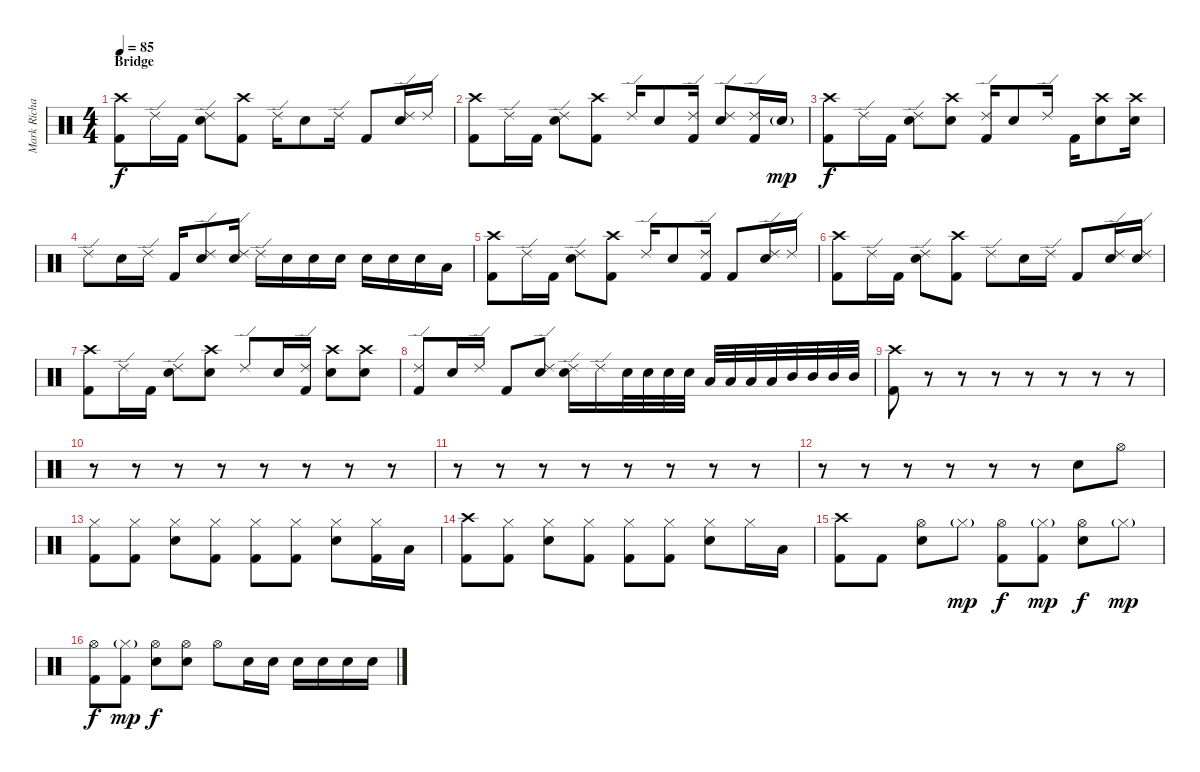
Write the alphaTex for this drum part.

\track ("Mark Richardson" "Mark Richa") {instrument percussion}
\staff {score}
\articulation defaults
\ts (4 4)
\section ("" "Bridge")
\tempo 85
\clef neutral
\ks c
("Crash high (hit)" "Kick (hit) 2").8{dy f} "Ride (edge) 2".16 "Kick (hit) 2".16 ("Ride (edge) 2" "Snare (hit) 2").8 ("Crash high (hit)" "Kick (hit) 2").8 "Ride (edge) 2".16 "Snare (hit) 2".8 "Ride (edge) 2".16 "Kick (hit) 2".8 ("Ride (edge) 2" "Snare (hit) 2").16 "Ride (edge) 2".16 |
("Crash high (hit)" "Kick (hit) 2").8 "Ride (edge) 2".16 "Kick (hit) 2".16 ("Ride (edge) 2" "Snare (hit) 2").8 ("Crash high (hit)" "Kick (hit) 2").8 "Ride (edge) 2".16 "Snare (hit) 2".8 ("Ride (edge) 2" "Kick (hit) 2").16 ("Ride (edge) 2" "Snare (hit) 2").8 ("Ride (edge) 2" "Kick (hit) 2").16 "Snare (hit) 2"{g}.16{dy mp} |
("Crash high (hit)" "Kick (hit) 2").8{dy f} "Ride (edge) 2".16 "Kick (hit) 2".16 ("Ride (edge) 2" "Snare (hit) 2").8 ("Crash high (hit)" "Snare (hit) 2").8 ("Ride (edge) 2" "Kick (hit) 2").16 "Snare (hit) 2".8 "Ride (edge) 2".16 "Kick (hit) 2".16 ("Crash high (hit)" "Snare (hit) 2").8 ("Crash high (hit)" "Snare (hit) 2").16 |
"Ride (edge) 2".8 "Snare (hit) 2".16 "Ride (edge) 2".16 "Kick (hit) 2".16 ("Ride (edge) 2" "Snare (hit) 2").8 ("Ride (edge) 2" "Snare (hit) 2").16 "Ride (edge) 2".16 "Snare (hit) 2".16 "Snare (hit) 2".16 "Snare (hit) 2".16 "Snare (hit) 2".16 "Snare (hit) 2".16 "Snare (hit) 2".16 "Low Tom (hit)".16 |
("Crash high (hit)" "Kick (hit) 2").8 "Ride (edge) 2".16 "Kick (hit) 2".16 ("Ride (edge) 2" "Snare (hit) 2").8 ("Crash high (hit)" "Kick (hit) 2").8 "Ride (edge) 2".16 "Snare (hit) 2".8 ("Ride (edge) 2" "Kick (hit) 2").16 "Kick (hit) 2".8 ("Ride (edge) 2" "Snare (hit) 2").16 "Ride (edge) 2".16 |
("Crash high (hit)" "Kick (hit) 2").8 "Ride (edge) 2".16 "Kick (hit) 2".16 ("Ride (edge) 2" "Snare (hit) 2").8 ("Crash high (hit)" "Kick (hit) 2").8 "Ride (edge) 2".8 "Snare (hit) 2".16 "Ride (edge) 2".16 "Kick (hit) 2".8 ("Ride (edge) 2" "Snare (hit) 2").16 ("Ride (edge) 2" "Snare (hit) 2").16 |
("Crash high (hit)" "Kick (hit) 2").8 "Ride (edge) 2".16 "Kick (hit) 2".16 ("Ride (edge) 2" "Snare (hit) 2").8 ("Crash high (hit)" "Snare (hit) 2").8 "Ride (edge) 2".8 "Snare (hit) 2".16 ("Ride (edge) 2" "Kick (hit) 2").16 ("Crash high (hit)" "Snare (hit) 2").8 ("Crash high (hit)" "Snare (hit) 2").8 |
("Ride (edge) 2" "Kick (hit) 2").8 "Snare (hit) 2".16 "Ride (edge) 2".16 "Kick (hit) 2".8 ("Ride (edge) 2" "Snare (hit) 2").8 ("Ride (edge) 2" "Snare (hit) 2").16 "Ride (edge) 2".16 "Snare (hit) 2".32 "Snare (hit) 2".32 "Snare (hit) 2".32 "Snare (hit) 2".32 "Low Tom (hit)".32 "Low Tom (hit)".32 "Low Tom (hit)".32 "Low Tom (hit)".32 "Mid Tom (hit)".32 "Mid Tom (hit)".32 "Mid Tom (hit)".32 "Mid Tom (hit)".32 |
("Crash high (hit)" "Kick (hit) 2").8 r.8 r.8 r.8 r.8 r.8 r.8 r.8 |
r.8 r.8 r.8 r.8 r.8 r.8 r.8 r.8 |
r.8 r.8 r.8 r.8 r.8 r.8 r.8 r.8 |
r.8 r.8 r.8 r.8 r.8 r.8 "Snare (hit) 2".8 "Hi-Hat (open)".8 |
("Hi-Hat (closed)" "Kick (hit) 2").8 ("Hi-Hat (closed)" "Kick (hit) 2").8 ("Hi-Hat (closed)" "Snare (hit) 2").8 ("Hi-Hat (closed)" "Kick (hit) 2").8 ("Hi-Hat (closed)" "Kick (hit) 2").8 ("Hi-Hat (closed)" "Kick (hit) 2").8 ("Hi-Hat (closed)" "Snare (hit) 2").8 ("Hi-Hat (closed)" "Kick (hit) 2").16 "Low Tom (hit)".16 |
("Crash high (hit)" "Kick (hit) 2").8 ("Hi-Hat (closed)" "Kick (hit) 2").8 ("Hi-Hat (closed)" "Snare (hit) 2").8 ("Hi-Hat (closed)" "Kick (hit) 2").8 ("Hi-Hat (closed)" "Kick (hit) 2").8 ("Hi-Hat (closed)" "Kick (hit) 2").8 ("Hi-Hat (closed)" "Snare (hit) 2").8 "Hi-Hat (closed)".16 "Low Tom (hit)".16 |
("Crash high (hit)" "Kick (hit) 2").8 "Kick (hit) 2".8 ("Hi-Hat (open)" "Snare (hit) 2").8 "Hi-Hat (closed)"{g}.8{dy mp} ("Hi-Hat (open)" "Kick (hit) 2").8{dy f} ("Hi-Hat (closed)"{g} "Kick (hit) 2").8{dy mp} ("Hi-Hat (open)" "Snare (hit) 2").8{dy f} "Hi-Hat (closed)"{g}.8{dy mp} |
("Hi-Hat (open)" "Kick (hit) 2").8{dy f} ("Hi-Hat (closed)"{g} "Kick (hit) 2").8{dy mp} ("Hi-Hat (open)" "Snare (hit) 2").8{dy f} ("Hi-Hat (open)" "Snare (hit) 2").8 "Hi-Hat (open)".8 "Snare (hit) 2".16 "Snare (hit) 2".16 "Snare (hit) 2".16 "Snare (hit) 2".16 "Snare (hit) 2".16 "Snare (hit) 2".16
